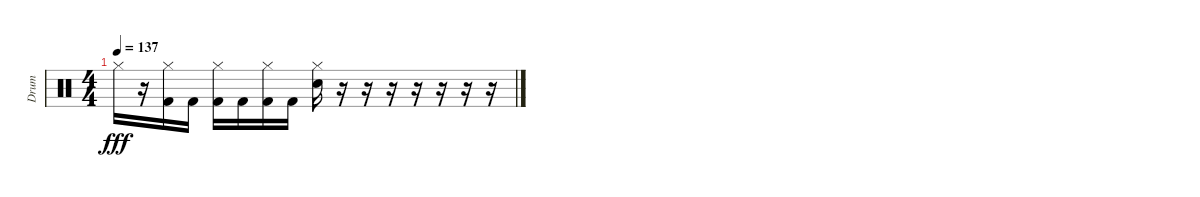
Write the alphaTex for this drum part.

\track ("Drum" "Drum") {instrument percussion}
\staff {score}
\articulation defaults
\ts (4 4)
\tempo 137
\clef neutral
\ks c "Hi-Hat (closed)".16{dy fff}
r.16 ("Hi-Hat (closed)" "Kick (hit) 2").16 "Kick (hit) 2".16 ("Hi-Hat (closed)" "Kick (hit) 2").16 "Kick (hit) 2".16 ("Hi-Hat (closed)" "Kick (hit) 2").16 "Kick (hit) 2".16 ("Hi-Hat (closed)" "Hand Clap (hit)").16 r.16 r.16 r.16 r.16 r.16 r.16 r.16
